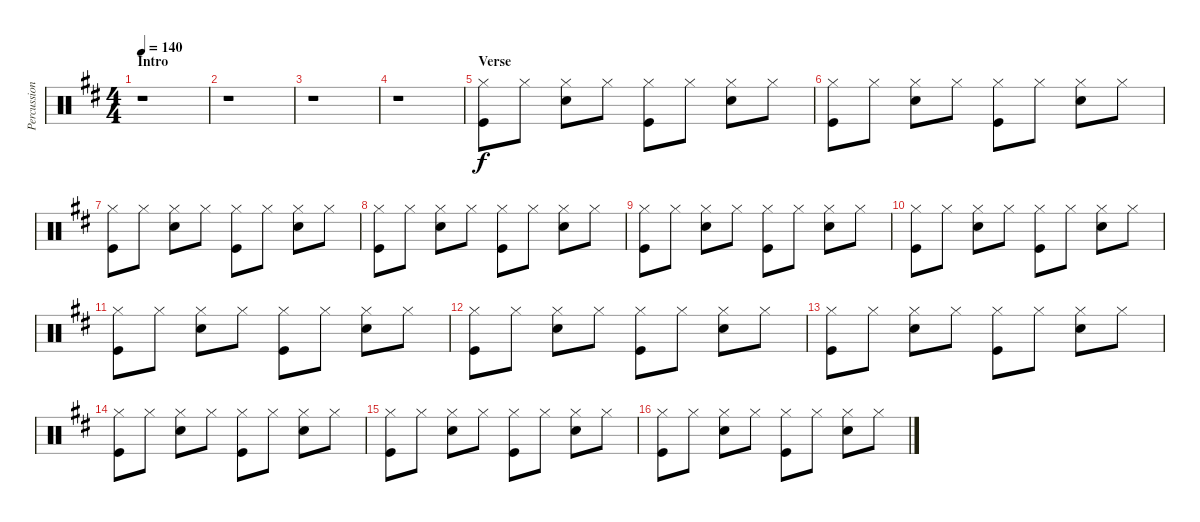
\track ("Percussion" "Percussion") {instrument percussion}
\staff {score}
\articulation defaults
\ts (4 4)
\section ("" "Intro")
\tempo 140
\clef neutral
\ks d
r.1{dy f} |
r.1 |
r.1 |
r.1 |
\section ("" "Verse")
("Hi-Hat (closed)" "Kick (hit)").8 "Hi-Hat (closed)".8 ("Hi-Hat (closed)" "Snare (hit) 2").8 "Hi-Hat (closed)".8 ("Hi-Hat (closed)" "Kick (hit)").8 "Hi-Hat (closed)".8 ("Hi-Hat (closed)" "Snare (hit) 2").8 "Hi-Hat (closed)".8 |
("Hi-Hat (closed)" "Kick (hit)").8 "Hi-Hat (closed)".8 ("Hi-Hat (closed)" "Snare (hit) 2").8 "Hi-Hat (closed)".8 ("Hi-Hat (closed)" "Kick (hit)").8 "Hi-Hat (closed)".8 ("Hi-Hat (closed)" "Snare (hit) 2").8 "Hi-Hat (closed)".8 |
("Hi-Hat (closed)" "Kick (hit)").8 "Hi-Hat (closed)".8 ("Hi-Hat (closed)" "Snare (hit) 2").8 "Hi-Hat (closed)".8 ("Hi-Hat (closed)" "Kick (hit)").8 "Hi-Hat (closed)".8 ("Hi-Hat (closed)" "Snare (hit) 2").8 "Hi-Hat (closed)".8 |
("Hi-Hat (closed)" "Kick (hit)").8 "Hi-Hat (closed)".8 ("Hi-Hat (closed)" "Snare (hit) 2").8 "Hi-Hat (closed)".8 ("Hi-Hat (closed)" "Kick (hit)").8 "Hi-Hat (closed)".8 ("Hi-Hat (closed)" "Snare (hit) 2").8 "Hi-Hat (closed)".8 |
("Hi-Hat (closed)" "Kick (hit)").8 "Hi-Hat (closed)".8 ("Hi-Hat (closed)" "Snare (hit) 2").8 "Hi-Hat (closed)".8 ("Hi-Hat (closed)" "Kick (hit)").8 "Hi-Hat (closed)".8 ("Hi-Hat (closed)" "Snare (hit) 2").8 "Hi-Hat (closed)".8 |
("Hi-Hat (closed)" "Kick (hit)").8 "Hi-Hat (closed)".8 ("Hi-Hat (closed)" "Snare (hit) 2").8 "Hi-Hat (closed)".8 ("Hi-Hat (closed)" "Kick (hit)").8 "Hi-Hat (closed)".8 ("Hi-Hat (closed)" "Snare (hit) 2").8 "Hi-Hat (closed)".8 |
("Hi-Hat (closed)" "Kick (hit)").8 "Hi-Hat (closed)".8 ("Hi-Hat (closed)" "Snare (hit) 2").8 "Hi-Hat (closed)".8 ("Hi-Hat (closed)" "Kick (hit)").8 "Hi-Hat (closed)".8 ("Hi-Hat (closed)" "Snare (hit) 2").8 "Hi-Hat (closed)".8 |
("Hi-Hat (closed)" "Kick (hit)").8 "Hi-Hat (closed)".8 ("Hi-Hat (closed)" "Snare (hit) 2").8 "Hi-Hat (closed)".8 ("Hi-Hat (closed)" "Kick (hit)").8 "Hi-Hat (closed)".8 ("Hi-Hat (closed)" "Snare (hit) 2").8 "Hi-Hat (closed)".8 |
("Hi-Hat (closed)" "Kick (hit)").8 "Hi-Hat (closed)".8 ("Hi-Hat (closed)" "Snare (hit) 2").8 "Hi-Hat (closed)".8 ("Hi-Hat (closed)" "Kick (hit)").8 "Hi-Hat (closed)".8 ("Hi-Hat (closed)" "Snare (hit) 2").8 "Hi-Hat (closed)".8 |
("Hi-Hat (closed)" "Kick (hit)").8 "Hi-Hat (closed)".8 ("Hi-Hat (closed)" "Snare (hit) 2").8 "Hi-Hat (closed)".8 ("Hi-Hat (closed)" "Kick (hit)").8 "Hi-Hat (closed)".8 ("Hi-Hat (closed)" "Snare (hit) 2").8 "Hi-Hat (closed)".8 |
("Hi-Hat (closed)" "Kick (hit)").8 "Hi-Hat (closed)".8 ("Hi-Hat (closed)" "Snare (hit) 2").8 "Hi-Hat (closed)".8 ("Hi-Hat (closed)" "Kick (hit)").8 "Hi-Hat (closed)".8 ("Hi-Hat (closed)" "Snare (hit) 2").8 "Hi-Hat (closed)".8 |
("Hi-Hat (closed)" "Kick (hit)").8 "Hi-Hat (closed)".8 ("Hi-Hat (closed)" "Snare (hit) 2").8 "Hi-Hat (closed)".8 ("Hi-Hat (closed)" "Kick (hit)").8 "Hi-Hat (closed)".8 ("Hi-Hat (closed)" "Snare (hit) 2").8 "Hi-Hat (closed)".8
